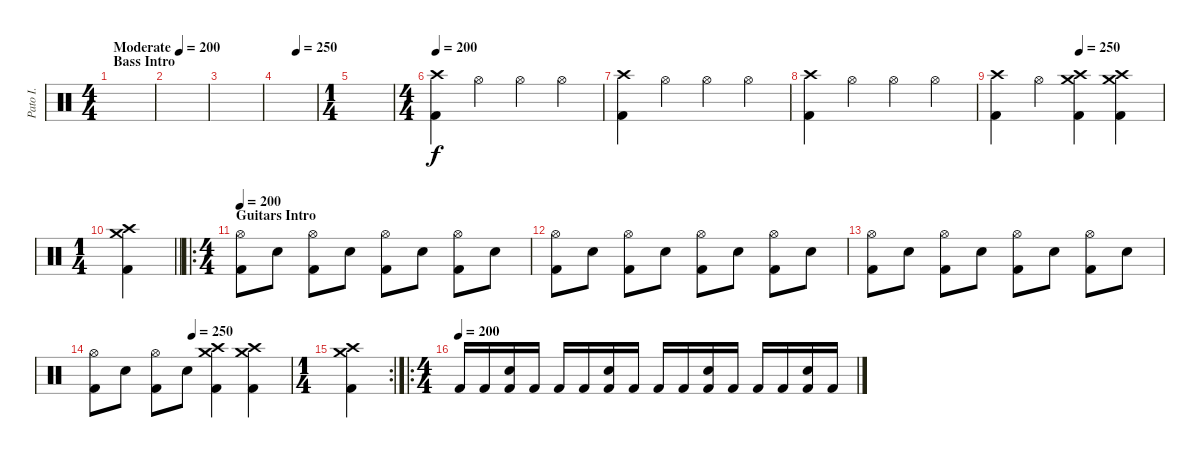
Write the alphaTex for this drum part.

\track ("Pato I." "Pato I.") {instrument percussion}
\staff {score}
\articulation defaults
\ts (4 4)
\section ("" "Bass Intro")
\tempo (200 "Moderate")
\clef neutral
\ks c
|
|
|
\tempo (250 0.5)
|
\ts (1 4)
|
\ts (4 4)
\tempo 200
("Crash high (hit)" "Kick (hit) 2").4 "Hi-Hat (open)".4 "Hi-Hat (open)".4 "Hi-Hat (open)".4 |
("Crash high (hit)" "Kick (hit) 2").4 "Hi-Hat (open)".4 "Hi-Hat (open)".4 "Hi-Hat (open)".4 |
("Crash high (hit)" "Kick (hit) 2").4 "Hi-Hat (open)".4 "Hi-Hat (open)".4 "Hi-Hat (open)".4 |
\tempo (250 0.5)
("Crash high (hit)" "Kick (hit) 2").4 "Hi-Hat (open)".4 ("Crash high (hit)" "Crash medium (hit)" "Kick (hit) 2").4 ("Crash high (hit)" "Crash medium (hit)" "Kick (hit) 2").4 |
\ts (1 4)
\barLineRight lightlight
("Crash high (hit)" "Crash medium (hit)" "Kick (hit) 2").4 |
\ro
\ts (4 4)
\section ("" "Guitars Intro")
\tempo 200
("Hi-Hat (open)" "Kick (hit) 2").8 "Snare (hit) 2".8 ("Hi-Hat (open)" "Kick (hit) 2").8 "Snare (hit) 2".8 ("Hi-Hat (open)" "Kick (hit) 2").8 "Snare (hit) 2".8 ("Hi-Hat (open)" "Kick (hit) 2").8 "Snare (hit) 2".8 |
("Hi-Hat (open)" "Kick (hit) 2").8 "Snare (hit) 2".8 ("Hi-Hat (open)" "Kick (hit) 2").8 "Snare (hit) 2".8 ("Hi-Hat (open)" "Kick (hit) 2").8 "Snare (hit) 2".8 ("Hi-Hat (open)" "Kick (hit) 2").8 "Snare (hit) 2".8 |
("Hi-Hat (open)" "Kick (hit) 2").8 "Snare (hit) 2".8 ("Hi-Hat (open)" "Kick (hit) 2").8 "Snare (hit) 2".8 ("Hi-Hat (open)" "Kick (hit) 2").8 "Snare (hit) 2".8 ("Hi-Hat (open)" "Kick (hit) 2").8 "Snare (hit) 2".8 |
\tempo (250 0.5)
("Hi-Hat (open)" "Kick (hit) 2").8 "Snare (hit) 2".8 ("Hi-Hat (open)" "Kick (hit) 2").8 "Snare (hit) 2".8 ("Crash high (hit)" "Crash medium (hit)" "Kick (hit) 2").4 ("Crash high (hit)" "Crash medium (hit)" "Kick (hit) 2").4 |
\rc 2
\ts (1 4)
("Crash high (hit)" "Crash medium (hit)" "Kick (hit) 2").4 |
\ro
\ts (4 4)
\tempo (200)
"Kick (hit) 2".16 "Kick (hit) 2".16 ("Snare (hit) 2" "Kick (hit) 2").16 "Kick (hit) 2".16 "Kick (hit) 2".16 "Kick (hit) 2".16 ("Snare (hit) 2" "Kick (hit) 2").16 "Kick (hit) 2".16 "Kick (hit) 2".16 "Kick (hit) 2".16 ("Snare (hit) 2" "Kick (hit) 2").16 "Kick (hit) 2".16 "Kick (hit) 2".16 "Kick (hit) 2".16 ("Snare (hit) 2" "Kick (hit) 2").16 "Kick (hit) 2".16
